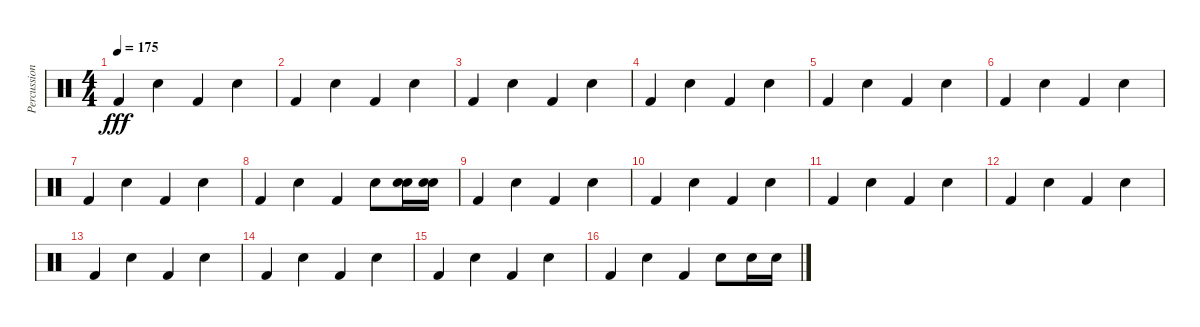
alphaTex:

\track ("Percussion" "Percussion") {instrument percussion}
\staff {score}
\articulation defaults
\ts (4 4)
\tempo 175
\clef neutral
\ks c "Kick (hit) 2".4{dy fff} "Snare (hit) 2".4 "Kick (hit) 2".4 "Snare (hit) 2".4
|
"Kick (hit) 2".4 "Snare (hit) 2".4 "Kick (hit) 2".4 "Snare (hit) 2".4 |
"Kick (hit) 2".4 "Snare (hit) 2".4 "Kick (hit) 2".4 "Snare (hit) 2".4 |
"Kick (hit) 2".4 "Snare (hit) 2".4 "Kick (hit) 2".4 "Snare (hit) 2".4 |
"Kick (hit) 2".4 "Snare (hit) 2".4 "Kick (hit) 2".4 "Snare (hit) 2".4 |
"Kick (hit) 2".4 "Snare (hit) 2".4 "Kick (hit) 2".4 "Snare (hit) 2".4 |
"Kick (hit) 2".4 "Snare (hit) 2".4 "Kick (hit) 2".4 "Snare (hit) 2".4 |
"Kick (hit) 2".4 "Snare (hit) 2".4 "Kick (hit) 2".4 "Snare (hit) 2".8 ("Snare (hit) 2" "Snare (hit) 2").16 ("Snare (hit) 2" "Snare (hit) 2").16 |
"Kick (hit) 2".4 "Snare (hit) 2".4 "Kick (hit) 2".4 "Snare (hit) 2".4 |
"Kick (hit) 2".4 "Snare (hit) 2".4 "Kick (hit) 2".4 "Snare (hit) 2".4 |
"Kick (hit) 2".4 "Snare (hit) 2".4 "Kick (hit) 2".4 "Snare (hit) 2".4 |
"Kick (hit) 2".4 "Snare (hit) 2".4 "Kick (hit) 2".4 "Snare (hit) 2".4 |
"Kick (hit) 2".4 "Snare (hit) 2".4 "Kick (hit) 2".4 "Snare (hit) 2".4 |
"Kick (hit) 2".4 "Snare (hit) 2".4 "Kick (hit) 2".4 "Snare (hit) 2".4 |
"Kick (hit) 2".4 "Snare (hit) 2".4 "Kick (hit) 2".4 "Snare (hit) 2".4 |
"Kick (hit) 2".4 "Snare (hit) 2".4 "Kick (hit) 2".4 "Snare (hit) 2".8 "Snare (hit) 2".16 "Snare (hit) 2".16
